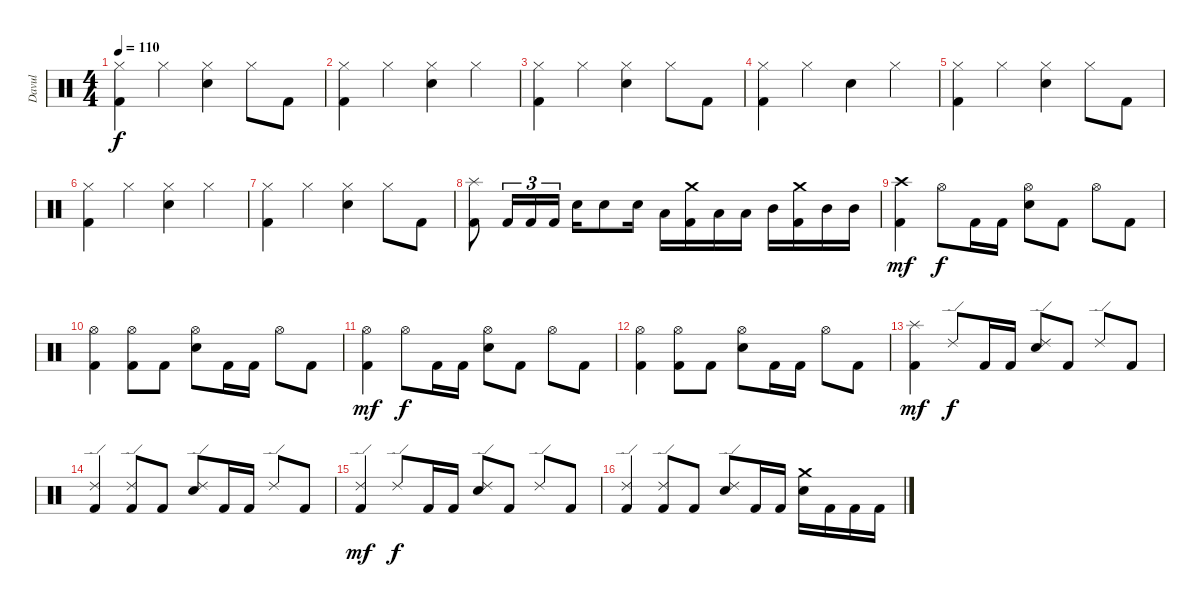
\track ("Davul" "Davul") {instrument percussion}
\staff {score}
\articulation defaults
\ts (4 4)
\tempo 110
\clef neutral
\ks c
("Hi-Hat (closed)" "Kick (hit) 2").4{dy f} "Hi-Hat (closed)".4 ("Hi-Hat (closed)" "Electric Snare (hit)").4 "Hi-Hat (closed)".8 "Kick (hit) 2".8 |
("Hi-Hat (closed)" "Kick (hit) 2").4 "Hi-Hat (closed)".4 ("Hi-Hat (closed)" "Electric Snare (hit)").4 "Hi-Hat (closed)".4 |
("Hi-Hat (closed)" "Kick (hit) 2").4 "Hi-Hat (closed)".4 ("Hi-Hat (closed)" "Electric Snare (hit)").4 "Hi-Hat (closed)".8 "Kick (hit) 2".8 |
("Hi-Hat (closed)" "Kick (hit) 2").4 "Hi-Hat (closed)".4 "Electric Snare (hit)".4 "Hi-Hat (closed)".4 |
("Hi-Hat (closed)" "Kick (hit) 2").4 "Hi-Hat (closed)".4 ("Hi-Hat (closed)" "Electric Snare (hit)").4 "Hi-Hat (closed)".8 "Kick (hit) 2".8 |
("Hi-Hat (closed)" "Kick (hit) 2").4 "Hi-Hat (closed)".4 ("Hi-Hat (closed)" "Electric Snare (hit)").4 "Hi-Hat (closed)".4 |
("Hi-Hat (closed)" "Kick (hit) 2").4 "Hi-Hat (closed)".4 ("Hi-Hat (closed)" "Electric Snare (hit)").4 "Hi-Hat (closed)".8 "Kick (hit) 2".8 |
("Splash (hit)" "Kick (hit) 2").8 "Kick (hit) 2".16{tu (3 2)} "Kick (hit) 2".16{tu (3 2)} "Kick (hit) 2".16{tu (3 2)} "Electric Snare (hit)".16 "Electric Snare (hit)".8 "Electric Snare (hit)".16 "Low Tom (hit)".16 ("Crash medium (hit)" "Kick (hit) 2").16 "Low Tom (hit)".16 "Low Tom (hit)".16 "Mid Tom (hit)".16 ("Crash medium (hit)" "Kick (hit) 2").16 "Mid Tom (hit)".16 "Mid Tom (hit)".16 |
("Crash high (hit)" "Kick (hit) 2").4{dy mf} "Hi-Hat (open)".8{dy f} "Kick (hit) 2".16 "Kick (hit) 2".16 ("Hi-Hat (open)" "Electric Snare (hit)").8 "Kick (hit) 2".8 "Hi-Hat (open)".8 "Kick (hit) 2".8 |
("Hi-Hat (open)" "Kick (hit) 2").4 ("Hi-Hat (open)" "Kick (hit) 2").8 "Kick (hit) 2".8 ("Hi-Hat (open)" "Electric Snare (hit)").8 "Kick (hit) 2".16 "Kick (hit) 2".16 "Hi-Hat (open)".8 "Kick (hit) 2".8 |
("Hi-Hat (open)" "Kick (hit) 2").4{dy mf} "Hi-Hat (open)".8{dy f} "Kick (hit) 2".16 "Kick (hit) 2".16 ("Hi-Hat (open)" "Electric Snare (hit)").8 "Kick (hit) 2".8 "Hi-Hat (open)".8 "Kick (hit) 2".8 |
("Hi-Hat (open)" "Kick (hit) 2").4 ("Hi-Hat (open)" "Kick (hit) 2").8 "Kick (hit) 2".8 ("Hi-Hat (open)" "Electric Snare (hit)").8 "Kick (hit) 2".16 "Kick (hit) 2".16 "Hi-Hat (open)".8 "Kick (hit) 2".8 |
("Splash (hit)" "Kick (hit) 2").4{dy mf} "Ride (edge) 2".8{dy f} "Kick (hit) 2".16 "Kick (hit) 2".16 ("Ride (edge) 2" "Electric Snare (hit)").8 "Kick (hit) 2".8 "Ride (edge) 2".8 "Kick (hit) 2".8 |
("Ride (edge) 2" "Kick (hit) 2").4 ("Ride (edge) 2" "Kick (hit) 2").8 "Kick (hit) 2".8 ("Ride (edge) 2" "Electric Snare (hit)").8 "Kick (hit) 2".16 "Kick (hit) 2".16 "Ride (edge) 2".8 "Kick (hit) 2".8 |
("Ride (edge) 2" "Kick (hit) 2").4{dy mf} "Ride (edge) 2".8{dy f} "Kick (hit) 2".16 "Kick (hit) 2".16 ("Ride (edge) 2" "Electric Snare (hit)").8 "Kick (hit) 2".8 "Ride (edge) 2".8 "Kick (hit) 2".8 |
("Ride (edge) 2" "Kick (hit) 2").4 ("Ride (edge) 2" "Kick (hit) 2").8 "Kick (hit) 2".8 ("Ride (edge) 2" "Electric Snare (hit)").8 "Kick (hit) 2".16 "Kick (hit) 2".16 ("Crash medium (hit)" "Electric Snare (hit)").16 "Kick (hit) 2".16 "Kick (hit) 2".16 "Kick (hit) 2".16
